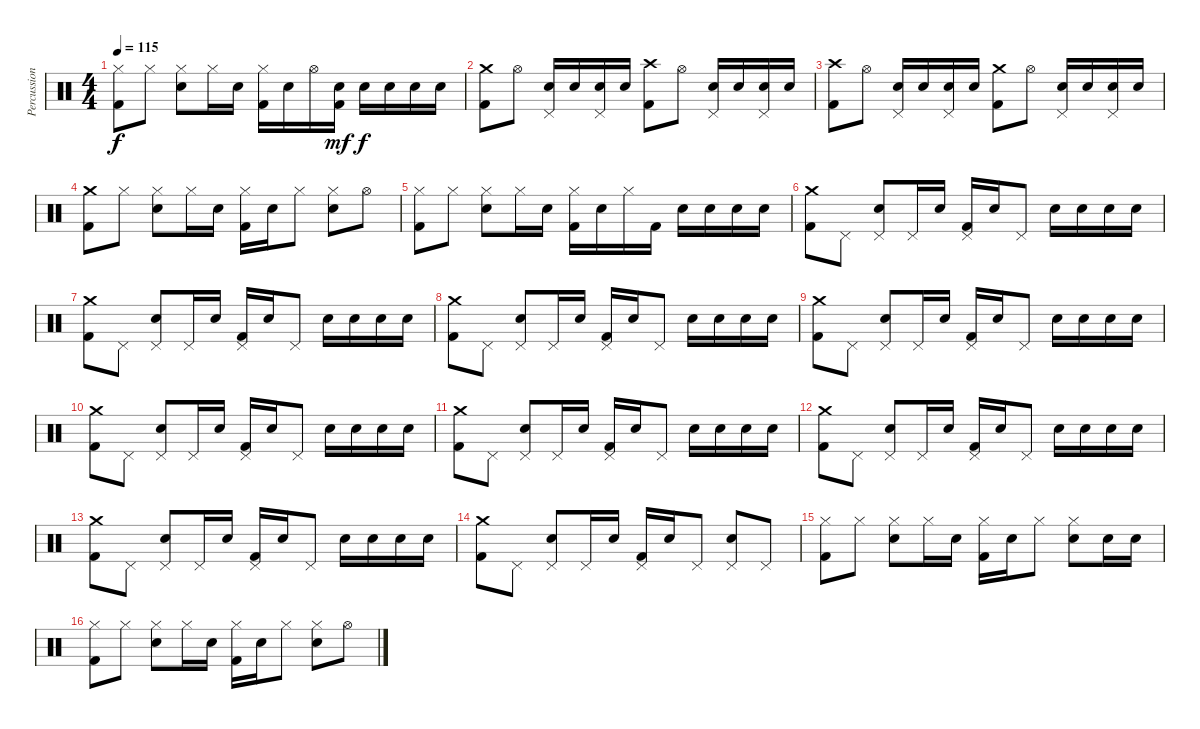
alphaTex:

\track ("Percussion" "Percussion") {instrument percussion}
\staff {score}
\articulation defaults
\ts (4 4)
\tempo 115
\clef neutral
\ks c
("Hi-Hat (closed)" "Kick (hit) 2").8{dy f} "Hi-Hat (closed)".8 ("Hi-Hat (closed)" "Electric Snare (hit)").8 "Hi-Hat (closed)".16 "Electric Snare (hit)".16 ("Hi-Hat (closed)" "Kick (hit) 2").16 "Electric Snare (hit)".16 "Hi-Hat (open)".16 ("Electric Snare (hit)" "Kick (hit) 2").16{dy mf} "Electric Snare (hit)".16{dy f} "Electric Snare (hit)".16 "Electric Snare (hit)".16 "Electric Snare (hit)".16 |
("Crash medium (hit)" "Kick (hit) 2").8 "Hi-Hat (open)".8 ("Pedal Hi-Hat (hit)" "Electric Snare (hit)").16 "Electric Snare (hit)".16 ("Pedal Hi-Hat (hit)" "Electric Snare (hit)").16 "Electric Snare (hit)".16 ("Crash high (hit)" "Kick (hit) 2").8 "Hi-Hat (open)".8 ("Pedal Hi-Hat (hit)" "Electric Snare (hit)").16 "Electric Snare (hit)".16 ("Pedal Hi-Hat (hit)" "Electric Snare (hit)").16 "Electric Snare (hit)".16 |
("Crash high (hit)" "Kick (hit) 2").8 "Hi-Hat (open)".8 ("Pedal Hi-Hat (hit)" "Electric Snare (hit)").16 "Electric Snare (hit)".16 ("Pedal Hi-Hat (hit)" "Electric Snare (hit)").16 "Electric Snare (hit)".16 ("Crash medium (hit)" "Kick (hit) 2").8 "Hi-Hat (open)".8 ("Pedal Hi-Hat (hit)" "Electric Snare (hit)").16 "Electric Snare (hit)".16 ("Pedal Hi-Hat (hit)" "Electric Snare (hit)").16 "Electric Snare (hit)".16 |
("Crash medium (hit)" "Kick (hit) 2").8 "Hi-Hat (closed)".8 ("Hi-Hat (closed)" "Electric Snare (hit)").8 "Hi-Hat (closed)".16 "Electric Snare (hit)".16 ("Hi-Hat (closed)" "Kick (hit) 2").16 "Electric Snare (hit)".16 "Hi-Hat (closed)".8 ("Hi-Hat (closed)" "Electric Snare (hit)").8 "Hi-Hat (open)".8 |
("Hi-Hat (closed)" "Kick (hit) 2").8 "Hi-Hat (closed)".8 ("Hi-Hat (closed)" "Electric Snare (hit)").8 "Hi-Hat (closed)".16 "Electric Snare (hit)".16 ("Hi-Hat (closed)" "Kick (hit) 2").16 "Electric Snare (hit)".16 "Hi-Hat (closed)".16 "Kick (hit) 2".16 "Electric Snare (hit)".16 "Electric Snare (hit)".16 "Electric Snare (hit)".16 "Electric Snare (hit)".16 |
("Crash medium (hit)" "Kick (hit) 2").8 "Pedal Hi-Hat (hit)".8 ("Pedal Hi-Hat (hit)" "Electric Snare (hit)").8 "Pedal Hi-Hat (hit)".16 "Electric Snare (hit)".16 ("Pedal Hi-Hat (hit)" "Kick (hit) 2").16 "Electric Snare (hit)".16 "Pedal Hi-Hat (hit)".8 "Electric Snare (hit)".16 "Electric Snare (hit)".16 "Electric Snare (hit)".16 "Electric Snare (hit)".16 |
("Crash medium (hit)" "Kick (hit) 2").8 "Pedal Hi-Hat (hit)".8 ("Pedal Hi-Hat (hit)" "Electric Snare (hit)").8 "Pedal Hi-Hat (hit)".16 "Electric Snare (hit)".16 ("Pedal Hi-Hat (hit)" "Kick (hit) 2").16 "Electric Snare (hit)".16 "Pedal Hi-Hat (hit)".8 "Electric Snare (hit)".16 "Electric Snare (hit)".16 "Electric Snare (hit)".16 "Electric Snare (hit)".16 |
("Crash medium (hit)" "Kick (hit) 2").8 "Pedal Hi-Hat (hit)".8 ("Pedal Hi-Hat (hit)" "Electric Snare (hit)").8 "Pedal Hi-Hat (hit)".16 "Electric Snare (hit)".16 ("Pedal Hi-Hat (hit)" "Kick (hit) 2").16 "Electric Snare (hit)".16 "Pedal Hi-Hat (hit)".8 "Electric Snare (hit)".16 "Electric Snare (hit)".16 "Electric Snare (hit)".16 "Electric Snare (hit)".16 |
("Crash medium (hit)" "Kick (hit) 2").8 "Pedal Hi-Hat (hit)".8 ("Pedal Hi-Hat (hit)" "Electric Snare (hit)").8 "Pedal Hi-Hat (hit)".16 "Electric Snare (hit)".16 ("Pedal Hi-Hat (hit)" "Kick (hit) 2").16 "Electric Snare (hit)".16 "Pedal Hi-Hat (hit)".8 "Electric Snare (hit)".16 "Electric Snare (hit)".16 "Electric Snare (hit)".16 "Electric Snare (hit)".16 |
("Crash medium (hit)" "Kick (hit) 2").8 "Pedal Hi-Hat (hit)".8 ("Pedal Hi-Hat (hit)" "Electric Snare (hit)").8 "Pedal Hi-Hat (hit)".16 "Electric Snare (hit)".16 ("Pedal Hi-Hat (hit)" "Kick (hit) 2").16 "Electric Snare (hit)".16 "Pedal Hi-Hat (hit)".8 "Electric Snare (hit)".16 "Electric Snare (hit)".16 "Electric Snare (hit)".16 "Electric Snare (hit)".16 |
("Crash medium (hit)" "Kick (hit) 2").8 "Pedal Hi-Hat (hit)".8 ("Pedal Hi-Hat (hit)" "Electric Snare (hit)").8 "Pedal Hi-Hat (hit)".16 "Electric Snare (hit)".16 ("Pedal Hi-Hat (hit)" "Kick (hit) 2").16 "Electric Snare (hit)".16 "Pedal Hi-Hat (hit)".8 "Electric Snare (hit)".16 "Electric Snare (hit)".16 "Electric Snare (hit)".16 "Electric Snare (hit)".16 |
("Crash medium (hit)" "Kick (hit) 2").8 "Pedal Hi-Hat (hit)".8 ("Pedal Hi-Hat (hit)" "Electric Snare (hit)").8 "Pedal Hi-Hat (hit)".16 "Electric Snare (hit)".16 ("Pedal Hi-Hat (hit)" "Kick (hit) 2").16 "Electric Snare (hit)".16 "Pedal Hi-Hat (hit)".8 "Electric Snare (hit)".16 "Electric Snare (hit)".16 "Electric Snare (hit)".16 "Electric Snare (hit)".16 |
("Crash medium (hit)" "Kick (hit) 2").8 "Pedal Hi-Hat (hit)".8 ("Pedal Hi-Hat (hit)" "Electric Snare (hit)").8 "Pedal Hi-Hat (hit)".16 "Electric Snare (hit)".16 ("Pedal Hi-Hat (hit)" "Kick (hit) 2").16 "Electric Snare (hit)".16 "Pedal Hi-Hat (hit)".8 "Electric Snare (hit)".16 "Electric Snare (hit)".16 "Electric Snare (hit)".16 "Electric Snare (hit)".16 |
("Crash medium (hit)" "Kick (hit) 2").8 "Pedal Hi-Hat (hit)".8 ("Pedal Hi-Hat (hit)" "Electric Snare (hit)").8 "Pedal Hi-Hat (hit)".16 "Electric Snare (hit)".16 ("Pedal Hi-Hat (hit)" "Kick (hit) 2").16 "Electric Snare (hit)".16 "Pedal Hi-Hat (hit)".8 ("Pedal Hi-Hat (hit)" "Electric Snare (hit)").8 "Pedal Hi-Hat (hit)".8 |
("Hi-Hat (closed)" "Kick (hit) 2").8 "Hi-Hat (closed)".8 ("Hi-Hat (closed)" "Electric Snare (hit)").8 "Hi-Hat (closed)".16 "Electric Snare (hit)".16 ("Hi-Hat (closed)" "Kick (hit) 2").16 "Electric Snare (hit)".16 "Hi-Hat (closed)".8 ("Hi-Hat (closed)" "Electric Snare (hit)").8 "Electric Snare (hit)".16 "Electric Snare (hit)".16 |
("Hi-Hat (closed)" "Kick (hit) 2").8 "Hi-Hat (closed)".8 ("Hi-Hat (closed)" "Electric Snare (hit)").8 "Hi-Hat (closed)".16 "Electric Snare (hit)".16 ("Hi-Hat (closed)" "Kick (hit) 2").16 "Electric Snare (hit)".16 "Hi-Hat (closed)".8 ("Hi-Hat (closed)" "Electric Snare (hit)").8 "Hi-Hat (open)".8
